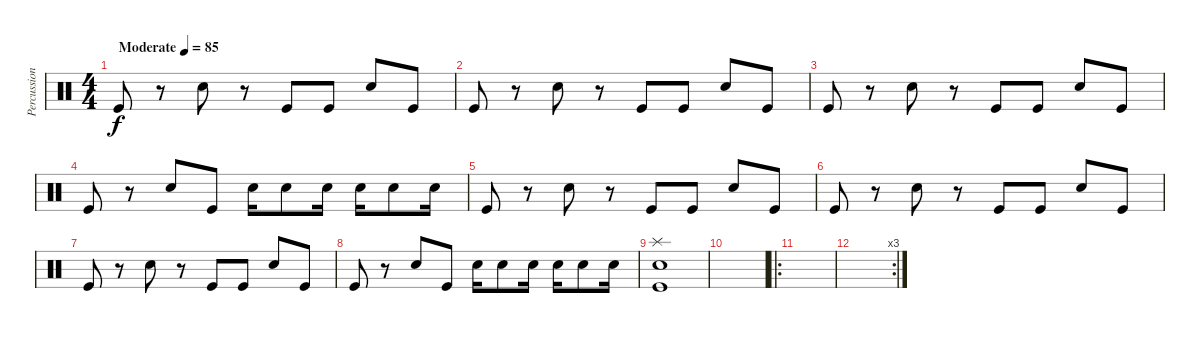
\track ("Percussion" "Percussion") {instrument percussion}
\staff {score}
\articulation defaults
\ts (4 4)
\tempo (85 "Moderate")
\clef neutral
\ks c "Kick (hit)".8{dy f}
r.8 "Snare (hit) 2".8 r.8 "Kick (hit)".8 "Kick (hit)".8 "Snare (hit) 2".8 "Kick (hit)".8 |
"Kick (hit)".8 r.8 "Snare (hit) 2".8 r.8 "Kick (hit)".8 "Kick (hit)".8 "Snare (hit) 2".8 "Kick (hit)".8 |
"Kick (hit)".8 r.8 "Snare (hit) 2".8 r.8 "Kick (hit)".8 "Kick (hit)".8 "Snare (hit) 2".8 "Kick (hit)".8 |
"Kick (hit)".8 r.8 "Snare (hit) 2".8 "Kick (hit)".8 "Snare (hit) 2".16 "Snare (hit) 2".8 "Snare (hit) 2".16 "Snare (hit) 2".16 "Snare (hit) 2".8 "Snare (hit) 2".16 |
"Kick (hit)".8 r.8 "Snare (hit) 2".8 r.8 "Kick (hit)".8 "Kick (hit)".8 "Snare (hit) 2".8 "Kick (hit)".8 |
"Kick (hit)".8 r.8 "Snare (hit) 2".8 r.8 "Kick (hit)".8 "Kick (hit)".8 "Snare (hit) 2".8 "Kick (hit)".8 |
"Kick (hit)".8 r.8 "Snare (hit) 2".8 r.8 "Kick (hit)".8 "Kick (hit)".8 "Snare (hit) 2".8 "Kick (hit)".8 |
"Kick (hit)".8 r.8 "Snare (hit) 2".8 "Kick (hit)".8 "Snare (hit) 2".16 "Snare (hit) 2".8 "Snare (hit) 2".16 "Snare (hit) 2".16 "Snare (hit) 2".8 "Snare (hit) 2".16 |
("Splash (hit)" "Snare (hit) 2" "Kick (hit)").1 |
|
\ro
|
\rc 3
